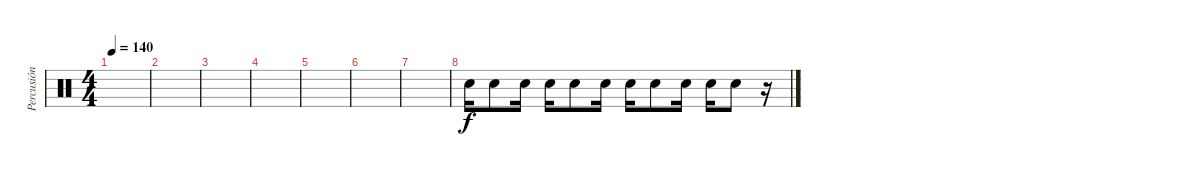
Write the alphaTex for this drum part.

\track ("Percusión Fredy Caldas" "Percusión ") {instrument percussion}
\staff {score}
\articulation defaults
\ts (4 4)
\tempo 140
\clef neutral
\ks c
|
|
|
|
|
|
|
"Snare (hit) 2".16 "Snare (hit) 2".8 "Snare (hit) 2".16 "Snare (hit) 2".16 "Snare (hit) 2".8 "Snare (hit) 2".16 "Snare (hit) 2".16 "Snare (hit) 2".8 "Snare (hit) 2".16 "Snare (hit) 2".16 "Snare (hit) 2".8 r.16
